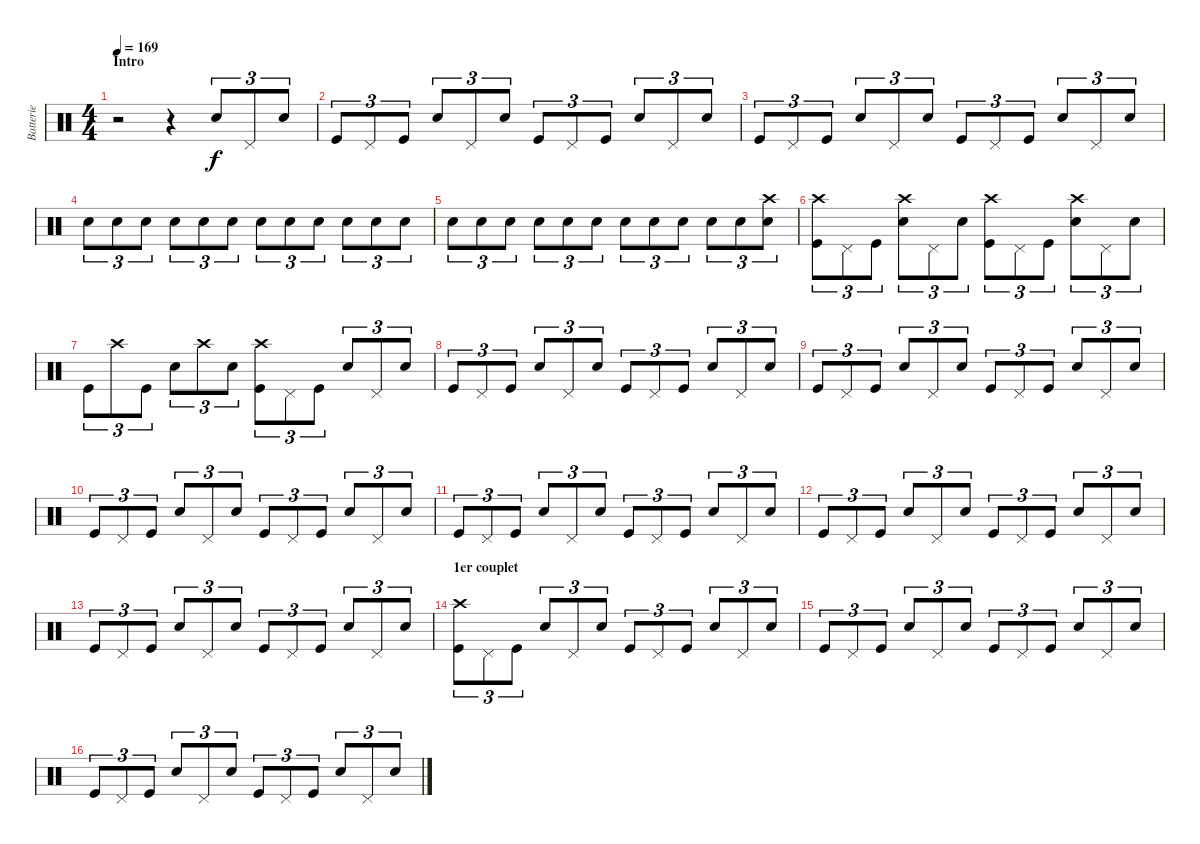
\track ("Batterie" "Batterie") {instrument percussion}
\staff {score}
\articulation defaults
\ts (4 4)
\section ("" "Intro")
\tempo 169
\clef neutral
\ks c
r.2{dy f} r.4 "Snare (hit) 2".8{tu (3 2)} "Pedal Hi-Hat (hit)".8{tu (3 2)} "Snare (hit) 2".8{tu (3 2)} |
"Kick (hit)".8{tu (3 2)} "Pedal Hi-Hat (hit)".8{tu (3 2)} "Kick (hit)".8{tu (3 2)} "Snare (hit) 2".8{tu (3 2)} "Pedal Hi-Hat (hit)".8{tu (3 2)} "Snare (hit) 2".8{tu (3 2)} "Kick (hit)".8{tu (3 2)} "Pedal Hi-Hat (hit)".8{tu (3 2)} "Kick (hit)".8{tu (3 2)} "Snare (hit) 2".8{tu (3 2)} "Pedal Hi-Hat (hit)".8{tu (3 2)} "Snare (hit) 2".8{tu (3 2)} |
"Kick (hit)".8{tu (3 2)} "Pedal Hi-Hat (hit)".8{tu (3 2)} "Kick (hit)".8{tu (3 2)} "Snare (hit) 2".8{tu (3 2)} "Pedal Hi-Hat (hit)".8{tu (3 2)} "Snare (hit) 2".8{tu (3 2)} "Kick (hit)".8{tu (3 2)} "Pedal Hi-Hat (hit)".8{tu (3 2)} "Kick (hit)".8{tu (3 2)} "Snare (hit) 2".8{tu (3 2)} "Pedal Hi-Hat (hit)".8{tu (3 2)} "Snare (hit) 2".8{tu (3 2)} |
"Snare (hit) 2".8{tu (3 2)} "Snare (hit) 2".8{tu (3 2)} "Snare (hit) 2".8{tu (3 2)} "Snare (hit) 2".8{tu (3 2)} "Snare (hit) 2".8{tu (3 2)} "Snare (hit) 2".8{tu (3 2)} "Snare (hit) 2".8{tu (3 2)} "Snare (hit) 2".8{tu (3 2)} "Snare (hit) 2".8{tu (3 2)} "Snare (hit) 2".8{tu (3 2)} "Snare (hit) 2".8{tu (3 2)} "Snare (hit) 2".8{tu (3 2)} |
"Snare (hit) 2".8{tu (3 2)} "Snare (hit) 2".8{tu (3 2)} "Snare (hit) 2".8{tu (3 2)} "Snare (hit) 2".8{tu (3 2)} "Snare (hit) 2".8{tu (3 2)} "Snare (hit) 2".8{tu (3 2)} "Snare (hit) 2".8{tu (3 2)} "Snare (hit) 2".8{tu (3 2)} "Snare (hit) 2".8{tu (3 2)} "Snare (hit) 2".8{tu (3 2)} "Snare (hit) 2".8{tu (3 2)} ("Crash high (hit)" "Snare (hit) 2").8{tu (3 2)} |
("Crash high (hit)" "Kick (hit)").8{tu (3 2)} "Pedal Hi-Hat (hit)".8{tu (3 2)} "Kick (hit)".8{tu (3 2)} ("Crash high (hit)" "Snare (hit) 2").8{tu (3 2)} "Pedal Hi-Hat (hit)".8{tu (3 2)} "Snare (hit) 2".8{tu (3 2)} ("Crash high (hit)" "Kick (hit)").8{tu (3 2)} "Pedal Hi-Hat (hit)".8{tu (3 2)} "Kick (hit)".8{tu (3 2)} ("Crash high (hit)" "Snare (hit) 2").8{tu (3 2)} "Pedal Hi-Hat (hit)".8{tu (3 2)} "Snare (hit) 2".8{tu (3 2)} |
"Kick (hit)".8{tu (3 2)} "Crash high (hit)".8{tu (3 2)} "Kick (hit)".8{tu (3 2)} "Snare (hit) 2".8{tu (3 2)} "Crash high (hit)".8{tu (3 2)} "Snare (hit) 2".8{tu (3 2)} ("Crash high (hit)" "Kick (hit)").8{tu (3 2)} "Pedal Hi-Hat (hit)".8{tu (3 2)} "Kick (hit)".8{tu (3 2)} "Snare (hit) 2".8{tu (3 2)} "Pedal Hi-Hat (hit)".8{tu (3 2)} "Snare (hit) 2".8{tu (3 2)} |
"Kick (hit)".8{tu (3 2)} "Pedal Hi-Hat (hit)".8{tu (3 2)} "Kick (hit)".8{tu (3 2)} "Snare (hit) 2".8{tu (3 2)} "Pedal Hi-Hat (hit)".8{tu (3 2)} "Snare (hit) 2".8{tu (3 2)} "Kick (hit)".8{tu (3 2)} "Pedal Hi-Hat (hit)".8{tu (3 2)} "Kick (hit)".8{tu (3 2)} "Snare (hit) 2".8{tu (3 2)} "Pedal Hi-Hat (hit)".8{tu (3 2)} "Snare (hit) 2".8{tu (3 2)} |
"Kick (hit)".8{tu (3 2)} "Pedal Hi-Hat (hit)".8{tu (3 2)} "Kick (hit)".8{tu (3 2)} "Snare (hit) 2".8{tu (3 2)} "Pedal Hi-Hat (hit)".8{tu (3 2)} "Snare (hit) 2".8{tu (3 2)} "Kick (hit)".8{tu (3 2)} "Pedal Hi-Hat (hit)".8{tu (3 2)} "Kick (hit)".8{tu (3 2)} "Snare (hit) 2".8{tu (3 2)} "Pedal Hi-Hat (hit)".8{tu (3 2)} "Snare (hit) 2".8{tu (3 2)} |
"Kick (hit)".8{tu (3 2)} "Pedal Hi-Hat (hit)".8{tu (3 2)} "Kick (hit)".8{tu (3 2)} "Snare (hit) 2".8{tu (3 2)} "Pedal Hi-Hat (hit)".8{tu (3 2)} "Snare (hit) 2".8{tu (3 2)} "Kick (hit)".8{tu (3 2)} "Pedal Hi-Hat (hit)".8{tu (3 2)} "Kick (hit)".8{tu (3 2)} "Snare (hit) 2".8{tu (3 2)} "Pedal Hi-Hat (hit)".8{tu (3 2)} "Snare (hit) 2".8{tu (3 2)} |
"Kick (hit)".8{tu (3 2)} "Pedal Hi-Hat (hit)".8{tu (3 2)} "Kick (hit)".8{tu (3 2)} "Snare (hit) 2".8{tu (3 2)} "Pedal Hi-Hat (hit)".8{tu (3 2)} "Snare (hit) 2".8{tu (3 2)} "Kick (hit)".8{tu (3 2)} "Pedal Hi-Hat (hit)".8{tu (3 2)} "Kick (hit)".8{tu (3 2)} "Snare (hit) 2".8{tu (3 2)} "Pedal Hi-Hat (hit)".8{tu (3 2)} "Snare (hit) 2".8{tu (3 2)} |
"Kick (hit)".8{tu (3 2)} "Pedal Hi-Hat (hit)".8{tu (3 2)} "Kick (hit)".8{tu (3 2)} "Snare (hit) 2".8{tu (3 2)} "Pedal Hi-Hat (hit)".8{tu (3 2)} "Snare (hit) 2".8{tu (3 2)} "Kick (hit)".8{tu (3 2)} "Pedal Hi-Hat (hit)".8{tu (3 2)} "Kick (hit)".8{tu (3 2)} "Snare (hit) 2".8{tu (3 2)} "Pedal Hi-Hat (hit)".8{tu (3 2)} "Snare (hit) 2".8{tu (3 2)} |
"Kick (hit)".8{tu (3 2)} "Pedal Hi-Hat (hit)".8{tu (3 2)} "Kick (hit)".8{tu (3 2)} "Snare (hit) 2".8{tu (3 2)} "Pedal Hi-Hat (hit)".8{tu (3 2)} "Snare (hit) 2".8{tu (3 2)} "Kick (hit)".8{tu (3 2)} "Pedal Hi-Hat (hit)".8{tu (3 2)} "Kick (hit)".8{tu (3 2)} "Snare (hit) 2".8{tu (3 2)} "Pedal Hi-Hat (hit)".8{tu (3 2)} "Snare (hit) 2".8{tu (3 2)} |
\section ("" "1er couplet")
("Crash high (hit)" "Kick (hit)").8{tu (3 2)} "Pedal Hi-Hat (hit)".8{tu (3 2)} "Kick (hit)".8{tu (3 2)} "Snare (hit) 2".8{tu (3 2)} "Pedal Hi-Hat (hit)".8{tu (3 2)} "Snare (hit) 2".8{tu (3 2)} "Kick (hit)".8{tu (3 2)} "Pedal Hi-Hat (hit)".8{tu (3 2)} "Kick (hit)".8{tu (3 2)} "Snare (hit) 2".8{tu (3 2)} "Pedal Hi-Hat (hit)".8{tu (3 2)} "Snare (hit) 2".8{tu (3 2)} |
"Kick (hit)".8{tu (3 2)} "Pedal Hi-Hat (hit)".8{tu (3 2)} "Kick (hit)".8{tu (3 2)} "Snare (hit) 2".8{tu (3 2)} "Pedal Hi-Hat (hit)".8{tu (3 2)} "Snare (hit) 2".8{tu (3 2)} "Kick (hit)".8{tu (3 2)} "Pedal Hi-Hat (hit)".8{tu (3 2)} "Kick (hit)".8{tu (3 2)} "Snare (hit) 2".8{tu (3 2)} "Pedal Hi-Hat (hit)".8{tu (3 2)} "Snare (hit) 2".8{tu (3 2)} |
"Kick (hit)".8{tu (3 2)} "Pedal Hi-Hat (hit)".8{tu (3 2)} "Kick (hit)".8{tu (3 2)} "Snare (hit) 2".8{tu (3 2)} "Pedal Hi-Hat (hit)".8{tu (3 2)} "Snare (hit) 2".8{tu (3 2)} "Kick (hit)".8{tu (3 2)} "Pedal Hi-Hat (hit)".8{tu (3 2)} "Kick (hit)".8{tu (3 2)} "Snare (hit) 2".8{tu (3 2)} "Pedal Hi-Hat (hit)".8{tu (3 2)} "Snare (hit) 2".8{tu (3 2)}
